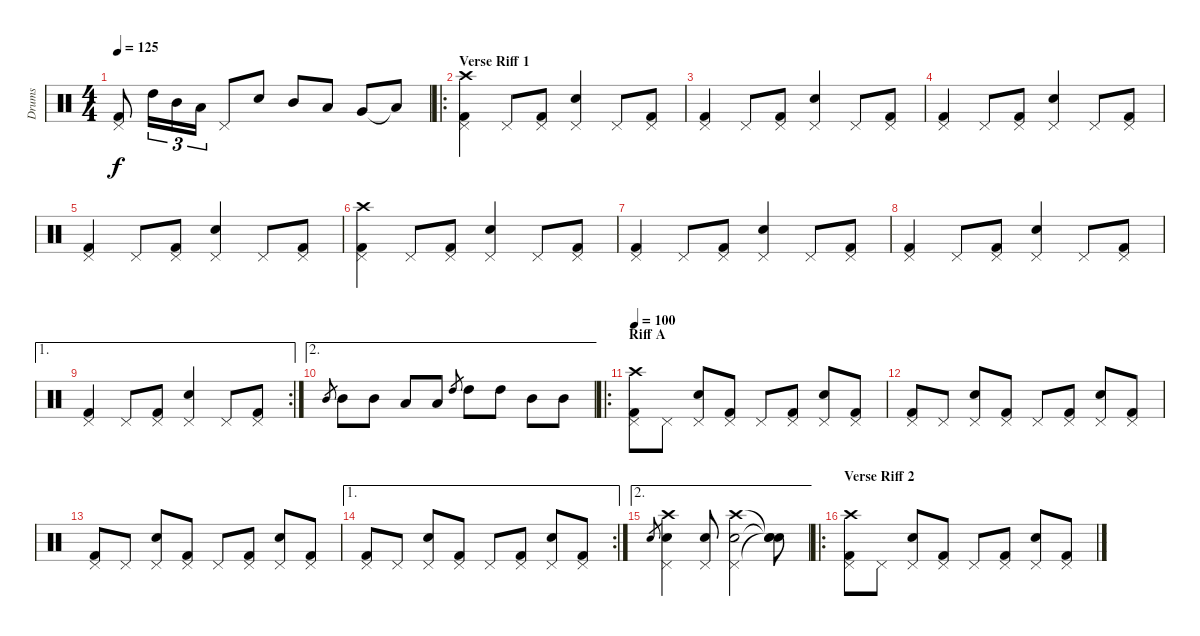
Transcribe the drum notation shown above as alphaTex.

\track ("Drums" "Drums") {instrument percussion}
\staff {score}
\articulation defaults
\ts (4 4)
\tempo 125
\clef neutral
\ks c
("Kick (hit) 2" "Pedal Hi-Hat (hit)").8{dy f} "High Tom (hit)".16{tu (3 2)} "Mid Tom (hit)".16{tu (3 2)} "Low Tom (hit)".16{tu (3 2)} "Pedal Hi-Hat (hit)".8 "Snare (hit) 2".8 "Mid Tom (hit)".8 "Low Tom (hit)".8 "Very Low Tom (hit)".8 "Low Floor Tom (hit)"{t}.8 |
\ro
\section ("" "Verse Riff 1")
("Kick (hit) 2" "Pedal Hi-Hat (hit)" "Crash high (hit)").4 "Pedal Hi-Hat (hit)".8 ("Kick (hit) 2" "Pedal Hi-Hat (hit)").8 ("Snare (hit) 2" "Pedal Hi-Hat (hit)").4 "Pedal Hi-Hat (hit)".8 ("Kick (hit) 2" "Pedal Hi-Hat (hit)").8 |
("Kick (hit) 2" "Pedal Hi-Hat (hit)").4 "Pedal Hi-Hat (hit)".8 ("Kick (hit) 2" "Pedal Hi-Hat (hit)").8 ("Snare (hit) 2" "Pedal Hi-Hat (hit)").4 "Pedal Hi-Hat (hit)".8 ("Kick (hit) 2" "Pedal Hi-Hat (hit)").8 |
("Kick (hit) 2" "Pedal Hi-Hat (hit)").4 "Pedal Hi-Hat (hit)".8 ("Kick (hit) 2" "Pedal Hi-Hat (hit)").8 ("Snare (hit) 2" "Pedal Hi-Hat (hit)").4 "Pedal Hi-Hat (hit)".8 ("Kick (hit) 2" "Pedal Hi-Hat (hit)").8 |
("Kick (hit) 2" "Pedal Hi-Hat (hit)").4 "Pedal Hi-Hat (hit)".8 ("Kick (hit) 2" "Pedal Hi-Hat (hit)").8 ("Snare (hit) 2" "Pedal Hi-Hat (hit)").4 "Pedal Hi-Hat (hit)".8 ("Kick (hit) 2" "Pedal Hi-Hat (hit)").8 |
("Kick (hit) 2" "Pedal Hi-Hat (hit)" "Crash high (hit)").4 "Pedal Hi-Hat (hit)".8 ("Kick (hit) 2" "Pedal Hi-Hat (hit)").8 ("Snare (hit) 2" "Pedal Hi-Hat (hit)").4 "Pedal Hi-Hat (hit)".8 ("Kick (hit) 2" "Pedal Hi-Hat (hit)").8 |
("Kick (hit) 2" "Pedal Hi-Hat (hit)").4 "Pedal Hi-Hat (hit)".8 ("Kick (hit) 2" "Pedal Hi-Hat (hit)").8 ("Snare (hit) 2" "Pedal Hi-Hat (hit)").4 "Pedal Hi-Hat (hit)".8 ("Kick (hit) 2" "Pedal Hi-Hat (hit)").8 |
("Kick (hit) 2" "Pedal Hi-Hat (hit)").4 "Pedal Hi-Hat (hit)".8 ("Kick (hit) 2" "Pedal Hi-Hat (hit)").8 ("Snare (hit) 2" "Pedal Hi-Hat (hit)").4 "Pedal Hi-Hat (hit)".8 ("Kick (hit) 2" "Pedal Hi-Hat (hit)").8 |
\ae 1
\rc 2
("Kick (hit) 2" "Pedal Hi-Hat (hit)").4 "Pedal Hi-Hat (hit)".8 ("Kick (hit) 2" "Pedal Hi-Hat (hit)").8 ("Snare (hit) 2" "Pedal Hi-Hat (hit)").4 "Pedal Hi-Hat (hit)".8 ("Kick (hit) 2" "Pedal Hi-Hat (hit)").8 |
\ae 2 "Mid Tom (hit)".8{gr} "Mid Tom (hit)".8 "Mid Tom (hit)".8 "Low Tom (hit)".8 "Low Tom (hit)".8 "High Tom (hit)".8{gr} "High Tom (hit)".8 "High Tom (hit)".8 "Mid Tom (hit)".8 "Mid Tom (hit)".8
|
\ro
\section ("" "Riff A")
\tempo 100
("Kick (hit) 2" "Pedal Hi-Hat (hit)" "Crash high (hit)").8 "Pedal Hi-Hat (hit)".8 ("Snare (hit) 2" "Pedal Hi-Hat (hit)").8 ("Kick (hit) 2" "Pedal Hi-Hat (hit)").8 "Pedal Hi-Hat (hit)".8 ("Kick (hit) 2" "Pedal Hi-Hat (hit)").8 ("Snare (hit) 2" "Pedal Hi-Hat (hit)").8 ("Kick (hit) 2" "Pedal Hi-Hat (hit)").8 |
("Kick (hit) 2" "Pedal Hi-Hat (hit)").8 "Pedal Hi-Hat (hit)".8 ("Snare (hit) 2" "Pedal Hi-Hat (hit)").8 ("Kick (hit) 2" "Pedal Hi-Hat (hit)").8 "Pedal Hi-Hat (hit)".8 ("Kick (hit) 2" "Pedal Hi-Hat (hit)").8 ("Snare (hit) 2" "Pedal Hi-Hat (hit)").8 ("Kick (hit) 2" "Pedal Hi-Hat (hit)").8 |
("Kick (hit) 2" "Pedal Hi-Hat (hit)").8 "Pedal Hi-Hat (hit)".8 ("Snare (hit) 2" "Pedal Hi-Hat (hit)").8 ("Kick (hit) 2" "Pedal Hi-Hat (hit)").8 "Pedal Hi-Hat (hit)".8 ("Kick (hit) 2" "Pedal Hi-Hat (hit)").8 ("Snare (hit) 2" "Pedal Hi-Hat (hit)").8 ("Kick (hit) 2" "Pedal Hi-Hat (hit)").8 |
\ae 1
\rc 2
("Kick (hit) 2" "Pedal Hi-Hat (hit)").8 "Pedal Hi-Hat (hit)".8 ("Snare (hit) 2" "Pedal Hi-Hat (hit)").8 ("Kick (hit) 2" "Pedal Hi-Hat (hit)").8 "Pedal Hi-Hat (hit)".8 ("Kick (hit) 2" "Pedal Hi-Hat (hit)").8 ("Snare (hit) 2" "Pedal Hi-Hat (hit)").8 ("Kick (hit) 2" "Pedal Hi-Hat (hit)").8 |
\ae 2 "Snare (hit) 2".8{gr}
("Snare (hit) 2" "Pedal Hi-Hat (hit)" "Crash high (hit)").4 ("Snare (hit) 2" "Pedal Hi-Hat (hit)").8 ("Snare (hit) 2" "Pedal Hi-Hat (hit)" "Crash high (hit)").2 ("Snare (hit)"{t} "Snare (hit)"{t} "Snare (hit)"{t}).8 |
\ro
\section ("" "Verse Riff 2")
("Kick (hit) 2" "Pedal Hi-Hat (hit)" "Crash high (hit)").8 "Pedal Hi-Hat (hit)".8 ("Snare (hit) 2" "Pedal Hi-Hat (hit)").8 ("Kick (hit) 2" "Pedal Hi-Hat (hit)").8 "Pedal Hi-Hat (hit)".8 ("Kick (hit) 2" "Pedal Hi-Hat (hit)").8 ("Snare (hit) 2" "Pedal Hi-Hat (hit)").8 ("Kick (hit) 2" "Pedal Hi-Hat (hit)").8
